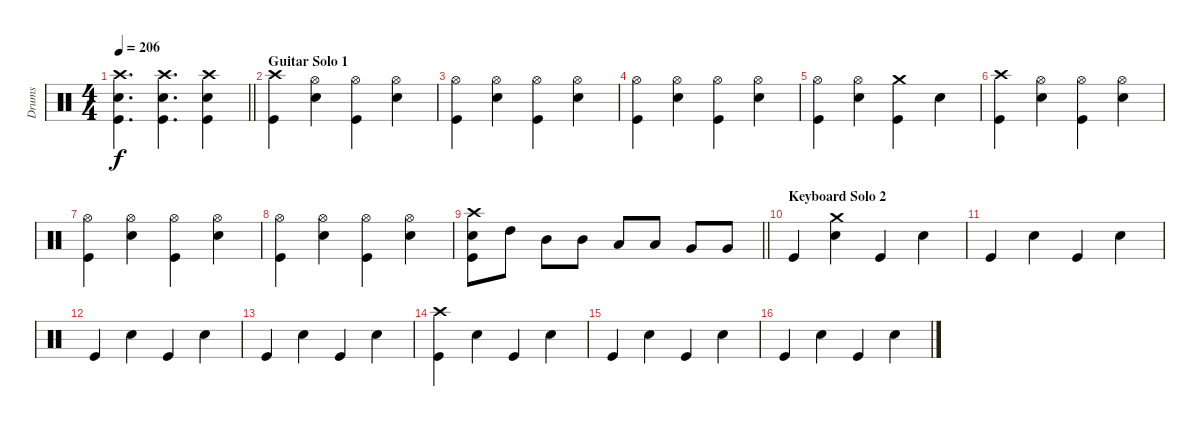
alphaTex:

\track ("Drums" "Drums") {instrument percussion}
\staff {score}
\articulation defaults
\ts (4 4)
\tempo 206
\clef neutral
\barLineRight lightlight
\ks c
("Crash high (hit)" "Electric Snare (hit)" "Kick (hit)").4{d dy f} ("Crash high (hit)" "Electric Snare (hit)" "Kick (hit)").4{d} ("Crash high (hit)" "Electric Snare (hit)" "Kick (hit)").4 |
\section ("" "Guitar Solo 1")
("Crash high (hit)" "Kick (hit)").4 ("Hi-Hat (open)" "Electric Snare (hit)").4 ("Hi-Hat (open)" "Kick (hit)").4 ("Hi-Hat (open)" "Electric Snare (hit)").4 |
("Hi-Hat (open)" "Kick (hit)").4 ("Hi-Hat (open)" "Electric Snare (hit)").4 ("Hi-Hat (open)" "Kick (hit)").4 ("Hi-Hat (open)" "Electric Snare (hit)").4 |
("Hi-Hat (open)" "Kick (hit)").4 ("Hi-Hat (open)" "Electric Snare (hit)").4 ("Hi-Hat (open)" "Kick (hit)").4 ("Hi-Hat (open)" "Electric Snare (hit)").4 |
("Hi-Hat (open)" "Kick (hit)").4 ("Hi-Hat (open)" "Electric Snare (hit)").4 ("Crash medium (hit)" "Kick (hit)").4 "Electric Snare (hit)".4 |
("Crash high (hit)" "Kick (hit)").4 ("Hi-Hat (open)" "Electric Snare (hit)").4 ("Hi-Hat (open)" "Kick (hit)").4 ("Hi-Hat (open)" "Electric Snare (hit)").4 |
("Hi-Hat (open)" "Kick (hit)").4 ("Hi-Hat (open)" "Electric Snare (hit)").4 ("Hi-Hat (open)" "Kick (hit)").4 ("Hi-Hat (open)" "Electric Snare (hit)").4 |
("Hi-Hat (open)" "Kick (hit)").4 ("Hi-Hat (open)" "Electric Snare (hit)").4 ("Hi-Hat (open)" "Kick (hit)").4 ("Hi-Hat (open)" "Electric Snare (hit)").4 |
\barLineRight lightlight
("Crash high (hit)" "Electric Snare (hit)" "Kick (hit)").8 "High Tom (hit)".8 "Mid Tom (hit)".8 "Mid Tom (hit)".8 "Low Tom (hit)".8 "Low Tom (hit)".8 "Very Low Tom (hit)".8 "Very Low Tom (hit)".8 |
\section ("" "Keyboard Solo 2")
"Kick (hit)".4 ("Crash medium (hit)" "Electric Snare (hit)").4 "Kick (hit)".4 "Electric Snare (hit)".4 |
"Kick (hit)".4 "Electric Snare (hit)".4 "Kick (hit)".4 "Electric Snare (hit)".4 |
"Kick (hit)".4 "Electric Snare (hit)".4 "Kick (hit)".4 "Electric Snare (hit)".4 |
"Kick (hit)".4 "Electric Snare (hit)".4 "Kick (hit)".4 "Electric Snare (hit)".4 |
("Crash high (hit)" "Kick (hit)").4 "Electric Snare (hit)".4 "Kick (hit)".4 "Electric Snare (hit)".4 |
"Kick (hit)".4 "Electric Snare (hit)".4 "Kick (hit)".4 "Electric Snare (hit)".4 |
"Kick (hit)".4 "Electric Snare (hit)".4 "Kick (hit)".4 "Electric Snare (hit)".4
